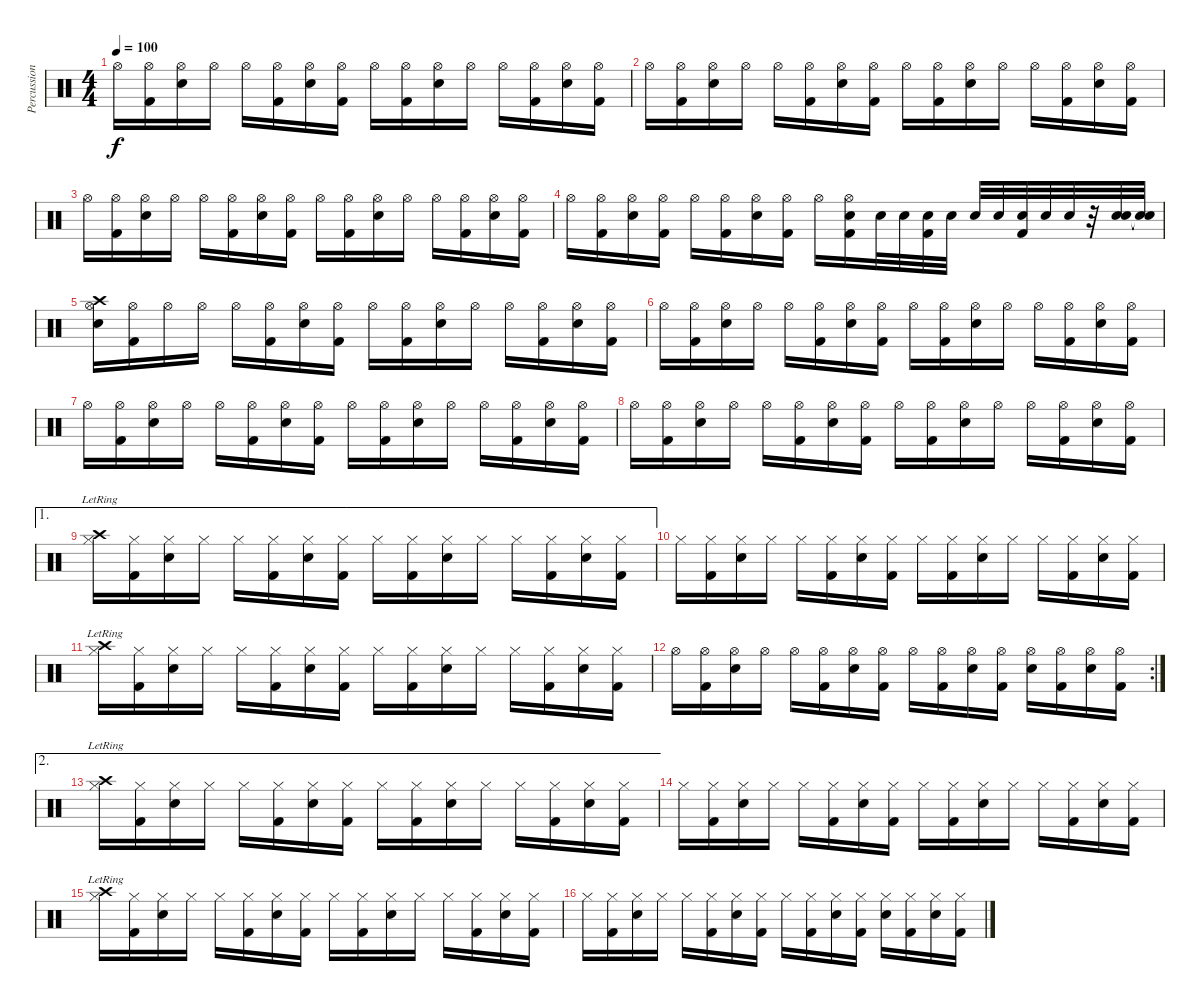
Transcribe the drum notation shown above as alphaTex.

\track ("Percussions" "Percussion") {instrument percussion}
\staff {score}
\articulation defaults
\ts (4 4)
\tempo 100
\clef neutral
\ks c "Hi-Hat (open)".16{dy f}
("Kick (hit) 2" "Hi-Hat (open)").16 ("Electric Snare (hit)" "Hi-Hat (open)").16 "Hi-Hat (open)".16 "Hi-Hat (open)".16 ("Kick (hit) 2" "Hi-Hat (open)").16 ("Electric Snare (hit)" "Hi-Hat (open)").16 ("Kick (hit) 2" "Hi-Hat (open)").16 "Hi-Hat (open)".16 ("Kick (hit) 2" "Hi-Hat (open)").16 ("Electric Snare (hit)" "Hi-Hat (open)").16 "Hi-Hat (open)".16 "Hi-Hat (open)".16 ("Kick (hit) 2" "Hi-Hat (open)").16 ("Electric Snare (hit)" "Hi-Hat (open)").16 ("Kick (hit) 2" "Hi-Hat (open)").16 |
"Hi-Hat (open)".16 ("Kick (hit) 2" "Hi-Hat (open)").16 ("Electric Snare (hit)" "Hi-Hat (open)").16 "Hi-Hat (open)".16 "Hi-Hat (open)".16 ("Kick (hit) 2" "Hi-Hat (open)").16 ("Electric Snare (hit)" "Hi-Hat (open)").16 ("Kick (hit) 2" "Hi-Hat (open)").16 "Hi-Hat (open)".16 ("Kick (hit) 2" "Hi-Hat (open)").16 ("Electric Snare (hit)" "Hi-Hat (open)").16 "Hi-Hat (open)".16 "Hi-Hat (open)".16 ("Kick (hit) 2" "Hi-Hat (open)").16 ("Electric Snare (hit)" "Hi-Hat (open)").16 ("Kick (hit) 2" "Hi-Hat (open)").16 |
"Hi-Hat (open)".16 ("Kick (hit) 2" "Hi-Hat (open)").16 ("Electric Snare (hit)" "Hi-Hat (open)").16 "Hi-Hat (open)".16 "Hi-Hat (open)".16 ("Kick (hit) 2" "Hi-Hat (open)").16 ("Electric Snare (hit)" "Hi-Hat (open)").16 ("Kick (hit) 2" "Hi-Hat (open)").16 "Hi-Hat (open)".16 ("Kick (hit) 2" "Hi-Hat (open)").16 ("Electric Snare (hit)" "Hi-Hat (open)").16 "Hi-Hat (open)".16 "Hi-Hat (open)".16 ("Kick (hit) 2" "Hi-Hat (open)").16 ("Electric Snare (hit)" "Hi-Hat (open)").16 ("Kick (hit) 2" "Hi-Hat (open)").16 |
"Hi-Hat (open)".16 ("Kick (hit) 2" "Hi-Hat (open)").16 ("Electric Snare (hit)" "Hi-Hat (open)").16 ("Kick (hit) 2" "Hi-Hat (open)").16 "Hi-Hat (open)".16 ("Kick (hit) 2" "Hi-Hat (open)").16 ("Electric Snare (hit)" "Hi-Hat (open)").16 ("Kick (hit) 2" "Hi-Hat (open)").16 "Hi-Hat (open)".16 ("Kick (hit) 2" "Electric Snare (hit)" "Hi-Hat (open)").16 "Electric Snare (hit)".32 "Electric Snare (hit)".32 ("Kick (hit) 2" "Electric Snare (hit)").32 "Electric Snare (hit)".32 "Electric Snare (hit)".32 "Electric Snare (hit)".32 ("Kick (hit) 2" "Electric Snare (hit)").32 "Electric Snare (hit)".32 "Electric Snare (hit)".32 r.32 ("Electric Snare (hit)" "Electric Snare (hit)").32 ("Snare (hit)"{t} "Snare (hit)"{t}).32 |
("Crash high (hit)" "Electric Snare (hit)" "Hi-Hat (open)").16 ("Kick (hit) 2" "Hi-Hat (open)").16 "Hi-Hat (open)".16 "Hi-Hat (open)".16 "Hi-Hat (open)".16 ("Kick (hit) 2" "Hi-Hat (open)").16 ("Electric Snare (hit)" "Hi-Hat (open)").16 ("Kick (hit) 2" "Hi-Hat (open)").16 "Hi-Hat (open)".16 ("Kick (hit) 2" "Hi-Hat (open)").16 ("Electric Snare (hit)" "Hi-Hat (open)").16 "Hi-Hat (open)".16 "Hi-Hat (open)".16 ("Kick (hit) 2" "Hi-Hat (open)").16 ("Electric Snare (hit)" "Hi-Hat (open)").16 ("Kick (hit) 2" "Hi-Hat (open)").16 |
"Hi-Hat (open)".16 ("Kick (hit) 2" "Hi-Hat (open)").16 ("Electric Snare (hit)" "Hi-Hat (open)").16 "Hi-Hat (open)".16 "Hi-Hat (open)".16 ("Kick (hit) 2" "Hi-Hat (open)").16 ("Electric Snare (hit)" "Hi-Hat (open)").16 ("Kick (hit) 2" "Hi-Hat (open)").16 "Hi-Hat (open)".16 ("Kick (hit) 2" "Hi-Hat (open)").16 ("Electric Snare (hit)" "Hi-Hat (open)").16 "Hi-Hat (open)".16 "Hi-Hat (open)".16 ("Kick (hit) 2" "Hi-Hat (open)").16 ("Electric Snare (hit)" "Hi-Hat (open)").16 ("Kick (hit) 2" "Hi-Hat (open)").16 |
"Hi-Hat (open)".16 ("Kick (hit) 2" "Hi-Hat (open)").16 ("Electric Snare (hit)" "Hi-Hat (open)").16 "Hi-Hat (open)".16 "Hi-Hat (open)".16 ("Kick (hit) 2" "Hi-Hat (open)").16 ("Electric Snare (hit)" "Hi-Hat (open)").16 ("Kick (hit) 2" "Hi-Hat (open)").16 "Hi-Hat (open)".16 ("Kick (hit) 2" "Hi-Hat (open)").16 ("Electric Snare (hit)" "Hi-Hat (open)").16 "Hi-Hat (open)".16 "Hi-Hat (open)".16 ("Kick (hit) 2" "Hi-Hat (open)").16 ("Electric Snare (hit)" "Hi-Hat (open)").16 ("Kick (hit) 2" "Hi-Hat (open)").16 |
"Hi-Hat (open)".16 ("Kick (hit) 2" "Hi-Hat (open)").16 ("Electric Snare (hit)" "Hi-Hat (open)").16 "Hi-Hat (open)".16 "Hi-Hat (open)".16 ("Kick (hit) 2" "Hi-Hat (open)").16 ("Electric Snare (hit)" "Hi-Hat (open)").16 ("Kick (hit) 2" "Hi-Hat (open)").16 "Hi-Hat (open)".16 ("Kick (hit) 2" "Hi-Hat (open)").16 ("Electric Snare (hit)" "Hi-Hat (open)").16 "Hi-Hat (open)".16 "Hi-Hat (open)".16 ("Kick (hit) 2" "Hi-Hat (open)").16 ("Electric Snare (hit)" "Hi-Hat (open)").16 ("Kick (hit) 2" "Hi-Hat (open)").16 |
\ae 1
("Crash high (hit)"{lr} "Hi-Hat (closed)").16 ("Kick (hit) 2" "Hi-Hat (closed)").16 ("Electric Snare (hit)" "Hi-Hat (closed)").16 "Hi-Hat (closed)".16 "Hi-Hat (closed)".16 ("Kick (hit) 2" "Hi-Hat (closed)").16 ("Electric Snare (hit)" "Hi-Hat (closed)").16 ("Kick (hit) 2" "Hi-Hat (closed)").16 "Hi-Hat (closed)".16 ("Kick (hit) 2" "Hi-Hat (closed)").16 ("Electric Snare (hit)" "Hi-Hat (closed)").16 "Hi-Hat (closed)".16 "Hi-Hat (closed)".16 ("Kick (hit) 2" "Hi-Hat (closed)").16 ("Electric Snare (hit)" "Hi-Hat (closed)").16 ("Kick (hit) 2" "Hi-Hat (closed)").16 |
"Hi-Hat (closed)".16 ("Kick (hit) 2" "Hi-Hat (closed)").16 ("Electric Snare (hit)" "Hi-Hat (closed)").16 "Hi-Hat (closed)".16 "Hi-Hat (closed)".16 ("Kick (hit) 2" "Hi-Hat (closed)").16 ("Electric Snare (hit)" "Hi-Hat (closed)").16 ("Kick (hit) 2" "Hi-Hat (closed)").16 "Hi-Hat (closed)".16 ("Kick (hit) 2" "Hi-Hat (closed)").16 ("Electric Snare (hit)" "Hi-Hat (closed)").16 "Hi-Hat (closed)".16 "Hi-Hat (closed)".16 ("Kick (hit) 2" "Hi-Hat (closed)").16 ("Electric Snare (hit)" "Hi-Hat (closed)").16 ("Kick (hit) 2" "Hi-Hat (closed)").16 |
("Crash high (hit)"{lr} "Hi-Hat (closed)").16 ("Kick (hit) 2" "Hi-Hat (closed)").16 ("Electric Snare (hit)" "Hi-Hat (closed)").16 "Hi-Hat (closed)".16 "Hi-Hat (closed)".16 ("Kick (hit) 2" "Hi-Hat (closed)").16 ("Electric Snare (hit)" "Hi-Hat (closed)").16 ("Kick (hit) 2" "Hi-Hat (closed)").16 "Hi-Hat (closed)".16 ("Kick (hit) 2" "Hi-Hat (closed)").16 ("Electric Snare (hit)" "Hi-Hat (closed)").16 "Hi-Hat (closed)".16 "Hi-Hat (closed)".16 ("Kick (hit) 2" "Hi-Hat (closed)").16 ("Electric Snare (hit)" "Hi-Hat (closed)").16 ("Kick (hit) 2" "Hi-Hat (closed)").16 |
\rc 2 "Hi-Hat (open)".16
("Kick (hit) 2" "Hi-Hat (open)").16 ("Electric Snare (hit)" "Hi-Hat (open)").16 "Hi-Hat (open)".16 "Hi-Hat (open)".16 ("Kick (hit) 2" "Hi-Hat (open)").16 ("Electric Snare (hit)" "Hi-Hat (open)").16 ("Kick (hit) 2" "Hi-Hat (open)").16 "Hi-Hat (open)".16 ("Kick (hit) 2" "Hi-Hat (open)").16 ("Electric Snare (hit)" "Hi-Hat (open)").16 ("Kick (hit) 2" "Hi-Hat (open)").16 ("Electric Snare (hit)" "Hi-Hat (open)").16 ("Kick (hit) 2" "Hi-Hat (open)").16 ("Electric Snare (hit)" "Hi-Hat (open)").16 ("Kick (hit) 2" "Hi-Hat (open)").16 |
\ae 2
("Crash high (hit)"{lr} "Hi-Hat (closed)").16 ("Kick (hit) 2" "Hi-Hat (closed)").16 ("Electric Snare (hit)" "Hi-Hat (closed)").16 "Hi-Hat (closed)".16 "Hi-Hat (closed)".16 ("Kick (hit) 2" "Hi-Hat (closed)").16 ("Electric Snare (hit)" "Hi-Hat (closed)").16 ("Kick (hit) 2" "Hi-Hat (closed)").16 "Hi-Hat (closed)".16 ("Kick (hit) 2" "Hi-Hat (closed)").16 ("Electric Snare (hit)" "Hi-Hat (closed)").16 "Hi-Hat (closed)".16 "Hi-Hat (closed)".16 ("Kick (hit) 2" "Hi-Hat (closed)").16 ("Electric Snare (hit)" "Hi-Hat (closed)").16 ("Kick (hit) 2" "Hi-Hat (closed)").16 |
"Hi-Hat (closed)".16 ("Kick (hit) 2" "Hi-Hat (closed)").16 ("Electric Snare (hit)" "Hi-Hat (closed)").16 "Hi-Hat (closed)".16 "Hi-Hat (closed)".16 ("Kick (hit) 2" "Hi-Hat (closed)").16 ("Electric Snare (hit)" "Hi-Hat (closed)").16 ("Kick (hit) 2" "Hi-Hat (closed)").16 "Hi-Hat (closed)".16 ("Kick (hit) 2" "Hi-Hat (closed)").16 ("Electric Snare (hit)" "Hi-Hat (closed)").16 "Hi-Hat (closed)".16 "Hi-Hat (closed)".16 ("Kick (hit) 2" "Hi-Hat (closed)").16 ("Electric Snare (hit)" "Hi-Hat (closed)").16 ("Kick (hit) 2" "Hi-Hat (closed)").16 |
("Crash high (hit)"{lr} "Hi-Hat (closed)").16 ("Kick (hit) 2" "Hi-Hat (closed)").16 ("Electric Snare (hit)" "Hi-Hat (closed)").16 "Hi-Hat (closed)".16 "Hi-Hat (closed)".16 ("Kick (hit) 2" "Hi-Hat (closed)").16 ("Electric Snare (hit)" "Hi-Hat (closed)").16 ("Kick (hit) 2" "Hi-Hat (closed)").16 "Hi-Hat (closed)".16 ("Kick (hit) 2" "Hi-Hat (closed)").16 ("Electric Snare (hit)" "Hi-Hat (closed)").16 "Hi-Hat (closed)".16 "Hi-Hat (closed)".16 ("Kick (hit) 2" "Hi-Hat (closed)").16 ("Electric Snare (hit)" "Hi-Hat (closed)").16 ("Kick (hit) 2" "Hi-Hat (closed)").16 |
"Hi-Hat (closed)".16 ("Kick (hit) 2" "Hi-Hat (closed)").16 ("Electric Snare (hit)" "Hi-Hat (closed)").16 "Hi-Hat (closed)".16 "Hi-Hat (closed)".16 ("Kick (hit) 2" "Hi-Hat (closed)").16 ("Electric Snare (hit)" "Hi-Hat (closed)").16 ("Kick (hit) 2" "Hi-Hat (closed)").16 "Hi-Hat (closed)".16 ("Kick (hit) 2" "Hi-Hat (closed)").16 ("Electric Snare (hit)" "Hi-Hat (closed)").16 ("Kick (hit) 2" "Hi-Hat (closed)").16 ("Electric Snare (hit)" "Hi-Hat (closed)").16 ("Kick (hit) 2" "Hi-Hat (closed)").16 ("Electric Snare (hit)" "Hi-Hat (closed)").16 ("Kick (hit) 2" "Hi-Hat (closed)").16
